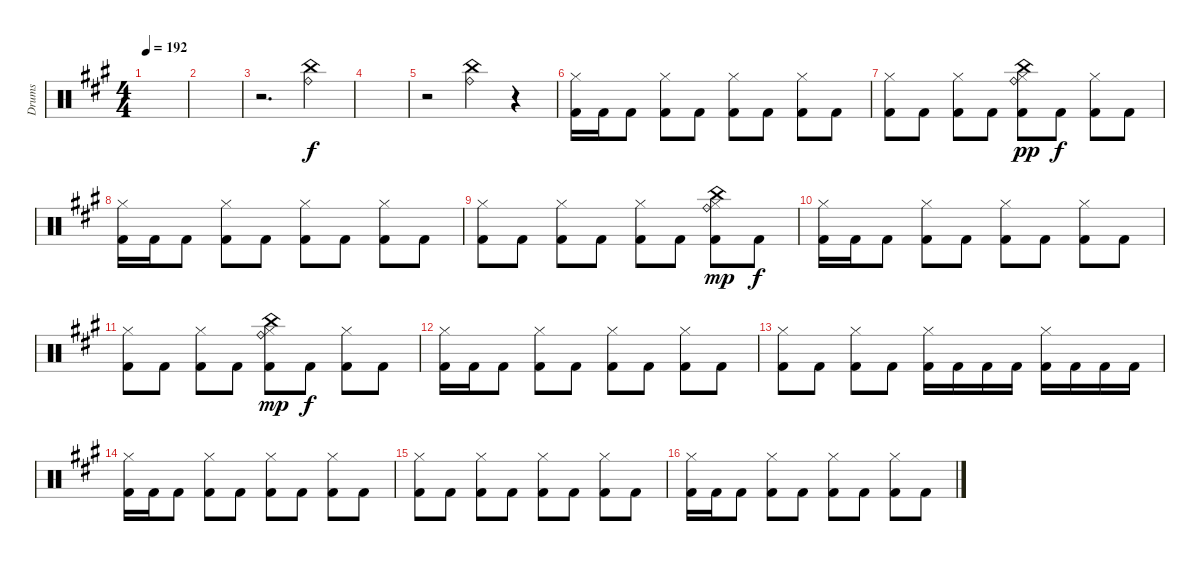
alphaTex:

\track ("Drums" "Drums") {instrument percussion}
\staff {score}
\articulation defaults
\ts (4 4)
\tempo 192
\clef neutral
\ks f#minor
|
|
r.2{d} ("Ride (bell)" "China (hit)").4 |
|
r.2 ("Ride (bell)" "China (hit)").4 r.4 |
("Hi-Hat (closed)" "Kick (hit) 2").16{dy f} "Kick (hit) 2".16 "Kick (hit) 2".8 ("Hi-Hat (closed)" "Kick (hit) 2").8 "Kick (hit) 2".8 ("Hi-Hat (closed)" "Kick (hit) 2").8 "Kick (hit) 2".8 ("Hi-Hat (closed)" "Kick (hit) 2").8 "Kick (hit) 2".8 |
("Hi-Hat (closed)" "Kick (hit) 2").8 "Kick (hit) 2".8 ("Hi-Hat (closed)" "Kick (hit) 2").8 "Kick (hit) 2".8 ("Hi-Hat (closed)" "Ride (bell)" "China (hit)" "Kick (hit) 2").8{dy pp} "Kick (hit) 2".8{dy f} ("Hi-Hat (closed)" "Kick (hit) 2").8 "Kick (hit) 2".8 |
("Hi-Hat (closed)" "Kick (hit) 2").16 "Kick (hit) 2".16 "Kick (hit) 2".8 ("Hi-Hat (closed)" "Kick (hit) 2").8 "Kick (hit) 2".8 ("Hi-Hat (closed)" "Kick (hit) 2").8 "Kick (hit) 2".8 ("Hi-Hat (closed)" "Kick (hit) 2").8 "Kick (hit) 2".8 |
("Hi-Hat (closed)" "Kick (hit) 2").8 "Kick (hit) 2".8 ("Hi-Hat (closed)" "Kick (hit) 2").8 "Kick (hit) 2".8 ("Hi-Hat (closed)" "Kick (hit) 2").8 "Kick (hit) 2".8 ("Hi-Hat (closed)" "China (hit)" "Ride (bell)" "Kick (hit) 2").8{dy mp} "Kick (hit) 2".8{dy f} |
("Hi-Hat (closed)" "Kick (hit) 2").16 "Kick (hit) 2".16 "Kick (hit) 2".8 ("Hi-Hat (closed)" "Kick (hit) 2").8 "Kick (hit) 2".8 ("Hi-Hat (closed)" "Kick (hit) 2").8 "Kick (hit) 2".8 ("Hi-Hat (closed)" "Kick (hit) 2").8 "Kick (hit) 2".8 |
("Hi-Hat (closed)" "Kick (hit) 2").8 "Kick (hit) 2".8 ("Hi-Hat (closed)" "Kick (hit) 2").8 "Kick (hit) 2".8 ("Hi-Hat (closed)" "China (hit)" "Ride (bell)" "Kick (hit) 2").8{dy mp} "Kick (hit) 2".8{dy f} ("Hi-Hat (closed)" "Kick (hit) 2").8 "Kick (hit) 2".8 |
("Hi-Hat (closed)" "Kick (hit) 2").16 "Kick (hit) 2".16 "Kick (hit) 2".8 ("Hi-Hat (closed)" "Kick (hit) 2").8 "Kick (hit) 2".8 ("Hi-Hat (closed)" "Kick (hit) 2").8 "Kick (hit) 2".8 ("Hi-Hat (closed)" "Kick (hit) 2").8 "Kick (hit) 2".8 |
("Hi-Hat (closed)" "Kick (hit) 2").8 "Kick (hit) 2".8 ("Hi-Hat (closed)" "Kick (hit) 2").8 "Kick (hit) 2".8 ("Hi-Hat (closed)" "Kick (hit) 2").16 "Kick (hit) 2".16 "Kick (hit) 2".16 "Kick (hit) 2".16 ("Hi-Hat (closed)" "Kick (hit) 2").16 "Kick (hit) 2".16 "Kick (hit) 2".16 "Kick (hit) 2".16 |
("Hi-Hat (closed)" "Kick (hit) 2").16 "Kick (hit) 2".16 "Kick (hit) 2".8 ("Hi-Hat (closed)" "Kick (hit) 2").8 "Kick (hit) 2".8 ("Hi-Hat (closed)" "Kick (hit) 2").8 "Kick (hit) 2".8 ("Hi-Hat (closed)" "Kick (hit) 2").8 "Kick (hit) 2".8 |
("Hi-Hat (closed)" "Kick (hit) 2").8 "Kick (hit) 2".8 ("Hi-Hat (closed)" "Kick (hit) 2").8 "Kick (hit) 2".8 ("Hi-Hat (closed)" "Kick (hit) 2").8 "Kick (hit) 2".8 ("Hi-Hat (closed)" "Kick (hit) 2").8 "Kick (hit) 2".8 |
("Hi-Hat (closed)" "Kick (hit) 2").16 "Kick (hit) 2".16 "Kick (hit) 2".8 ("Hi-Hat (closed)" "Kick (hit) 2").8 "Kick (hit) 2".8 ("Hi-Hat (closed)" "Kick (hit) 2").8 "Kick (hit) 2".8 ("Hi-Hat (closed)" "Kick (hit) 2").8 "Kick (hit) 2".8
